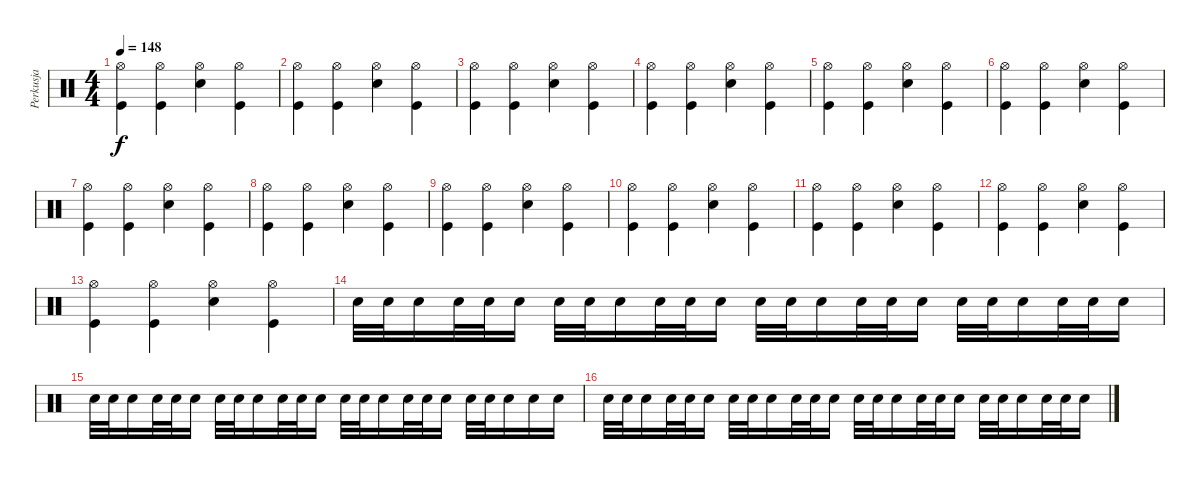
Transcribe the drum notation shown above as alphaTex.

\track ("Perkusja" "Perkusja") {instrument percussion}
\staff {score}
\articulation defaults
\ts (4 4)
\tempo 148
\clef neutral
\ks c
("Hi-Hat (open)" "Kick (hit)").4{dy f} ("Hi-Hat (open)" "Kick (hit)").4 ("Hi-Hat (open)" "Electric Snare (hit)").4 ("Hi-Hat (open)" "Kick (hit)").4 |
("Hi-Hat (open)" "Kick (hit)").4 ("Hi-Hat (open)" "Kick (hit)").4 ("Hi-Hat (open)" "Electric Snare (hit)").4 ("Hi-Hat (open)" "Kick (hit)").4 |
("Hi-Hat (open)" "Kick (hit)").4 ("Hi-Hat (open)" "Kick (hit)").4 ("Hi-Hat (open)" "Electric Snare (hit)").4 ("Hi-Hat (open)" "Kick (hit)").4 |
("Hi-Hat (open)" "Kick (hit)").4 ("Hi-Hat (open)" "Kick (hit)").4 ("Hi-Hat (open)" "Electric Snare (hit)").4 ("Hi-Hat (open)" "Kick (hit)").4 |
("Hi-Hat (open)" "Kick (hit)").4 ("Hi-Hat (open)" "Kick (hit)").4 ("Hi-Hat (open)" "Electric Snare (hit)").4 ("Hi-Hat (open)" "Kick (hit)").4 |
("Hi-Hat (open)" "Kick (hit)").4 ("Hi-Hat (open)" "Kick (hit)").4 ("Hi-Hat (open)" "Electric Snare (hit)").4 ("Hi-Hat (open)" "Kick (hit)").4 |
("Hi-Hat (open)" "Kick (hit)").4 ("Hi-Hat (open)" "Kick (hit)").4 ("Hi-Hat (open)" "Electric Snare (hit)").4 ("Hi-Hat (open)" "Kick (hit)").4 |
("Hi-Hat (open)" "Kick (hit)").4 ("Hi-Hat (open)" "Kick (hit)").4 ("Hi-Hat (open)" "Electric Snare (hit)").4 ("Hi-Hat (open)" "Kick (hit)").4 |
("Hi-Hat (open)" "Kick (hit)").4 ("Hi-Hat (open)" "Kick (hit)").4 ("Hi-Hat (open)" "Electric Snare (hit)").4 ("Hi-Hat (open)" "Kick (hit)").4 |
("Hi-Hat (open)" "Kick (hit)").4 ("Hi-Hat (open)" "Kick (hit)").4 ("Hi-Hat (open)" "Electric Snare (hit)").4 ("Hi-Hat (open)" "Kick (hit)").4 |
("Hi-Hat (open)" "Kick (hit)").4 ("Hi-Hat (open)" "Kick (hit)").4 ("Hi-Hat (open)" "Electric Snare (hit)").4 ("Hi-Hat (open)" "Kick (hit)").4 |
("Hi-Hat (open)" "Kick (hit)").4 ("Hi-Hat (open)" "Kick (hit)").4 ("Hi-Hat (open)" "Electric Snare (hit)").4 ("Hi-Hat (open)" "Kick (hit)").4 |
("Hi-Hat (open)" "Kick (hit)").4 ("Hi-Hat (open)" "Kick (hit)").4 ("Hi-Hat (open)" "Electric Snare (hit)").4 ("Hi-Hat (open)" "Kick (hit)").4 |
"Electric Snare (hit)".32{volume 6} "Electric Snare (hit)".32 "Electric Snare (hit)".16 "Electric Snare (hit)".32 "Electric Snare (hit)".32 "Electric Snare (hit)".16 "Electric Snare (hit)".32 "Electric Snare (hit)".32 "Electric Snare (hit)".16 "Electric Snare (hit)".32 "Electric Snare (hit)".32 "Electric Snare (hit)".16 "Electric Snare (hit)".32 "Electric Snare (hit)".32 "Electric Snare (hit)".16 "Electric Snare (hit)".32 "Electric Snare (hit)".32 "Electric Snare (hit)".16 "Electric Snare (hit)".32 "Electric Snare (hit)".32 "Electric Snare (hit)".16 "Electric Snare (hit)".32 "Electric Snare (hit)".32{volume 7} "Electric Snare (hit)".16 |
"Electric Snare (hit)".32 "Electric Snare (hit)".32 "Electric Snare (hit)".16 "Electric Snare (hit)".32 "Electric Snare (hit)".32 "Electric Snare (hit)".16 "Electric Snare (hit)".32 "Electric Snare (hit)".32 "Electric Snare (hit)".16 "Electric Snare (hit)".32 "Electric Snare (hit)".32 "Electric Snare (hit)".16 "Electric Snare (hit)".32 "Electric Snare (hit)".32 "Electric Snare (hit)".16{volume 8} "Electric Snare (hit)".32 "Electric Snare (hit)".32 "Electric Snare (hit)".16 "Electric Snare (hit)".32 "Electric Snare (hit)".32 "Electric Snare (hit)".16 "Electric Snare (hit)".16 "Electric Snare (hit)".16 |
"Electric Snare (hit)".32 "Electric Snare (hit)".32 "Electric Snare (hit)".16{volume 9} "Electric Snare (hit)".32 "Electric Snare (hit)".32 "Electric Snare (hit)".16 "Electric Snare (hit)".32 "Electric Snare (hit)".32 "Electric Snare (hit)".16 "Electric Snare (hit)".32 "Electric Snare (hit)".32 "Electric Snare (hit)".16 "Electric Snare (hit)".32 "Electric Snare (hit)".32 "Electric Snare (hit)".16 "Electric Snare (hit)".32{volume 10} "Electric Snare (hit)".32 "Electric Snare (hit)".16 "Electric Snare (hit)".32 "Electric Snare (hit)".32 "Electric Snare (hit)".16 "Electric Snare (hit)".32 "Electric Snare (hit)".32 "Electric Snare (hit)".16
